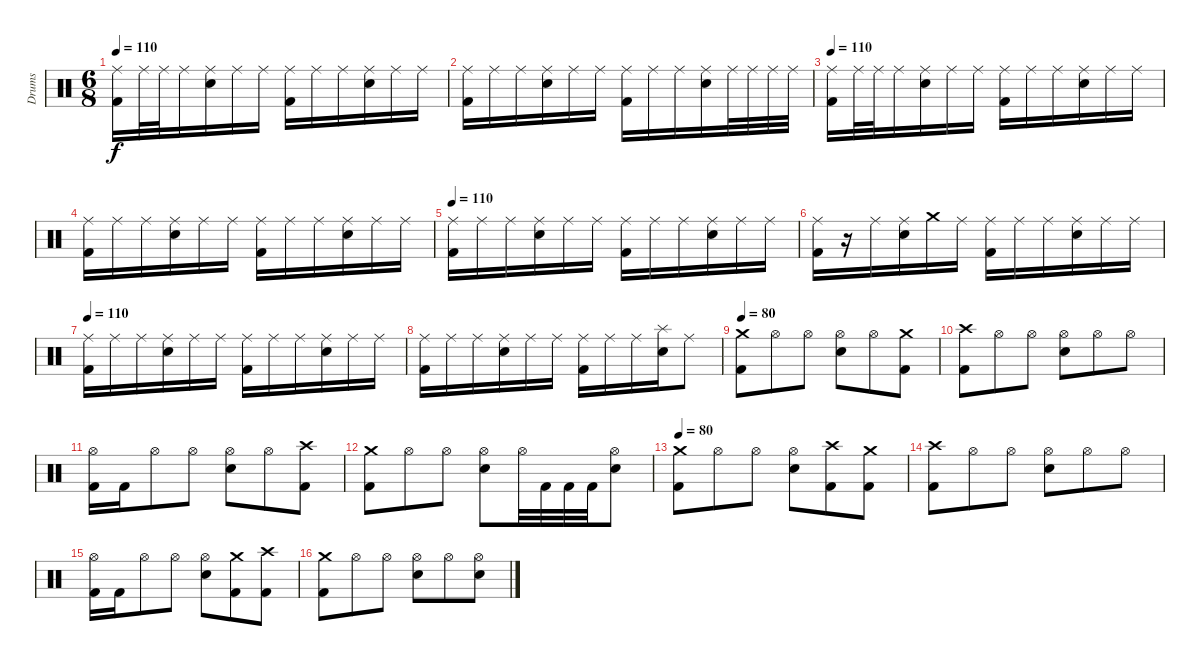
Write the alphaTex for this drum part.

\track ("Drums" "Drums") {instrument percussion}
\staff {score}
\articulation defaults
\ts (6 8)
\tempo 110
\clef neutral
\ks c
("Ride (middle)" "Kick (hit) 2").16{dy f} "Ride (middle)".32 "Ride (middle)".32 "Ride (middle)".16 ("Ride (middle)" "Electric Snare (hit)").16 "Ride (middle)".16 "Ride (middle)".16 ("Ride (middle)" "Kick (hit) 2").16 "Ride (middle)".16 "Ride (middle)".16 ("Ride (middle)" "Electric Snare (hit)").16 "Ride (middle)".16 "Ride (middle)".16 |
("Ride (middle)" "Kick (hit) 2").16 "Ride (middle)".16 "Ride (middle)".16 ("Ride (middle)" "Electric Snare (hit)").16 "Ride (middle)".16 "Ride (middle)".16 ("Ride (middle)" "Kick (hit) 2").16 "Ride (middle)".16 "Ride (middle)".16 ("Ride (middle)" "Electric Snare (hit)").16 "Ride (middle)".32 "Ride (middle)".32 "Ride (middle)".32 "Ride (middle)".32 |
\tempo 110
("Ride (middle)" "Kick (hit) 2").16 "Ride (middle)".32 "Ride (middle)".32 "Ride (middle)".16 ("Ride (middle)" "Electric Snare (hit)").16 "Ride (middle)".16 "Ride (middle)".16 ("Ride (middle)" "Kick (hit) 2").16 "Ride (middle)".16 "Ride (middle)".16 ("Ride (middle)" "Electric Snare (hit)").16 "Ride (middle)".16 "Ride (middle)".16 |
("Ride (middle)" "Kick (hit) 2").16 "Ride (middle)".16 "Ride (middle)".16 ("Ride (middle)" "Electric Snare (hit)").16 "Ride (middle)".16 "Ride (middle)".16 ("Ride (middle)" "Kick (hit) 2").16 "Ride (middle)".16 "Ride (middle)".16 ("Ride (middle)" "Electric Snare (hit)").16 "Ride (middle)".16 "Ride (middle)".16 |
\tempo 110
("Ride (middle)" "Kick (hit) 2").16 "Ride (middle)".16 "Ride (middle)".16 ("Ride (middle)" "Electric Snare (hit)").16 "Ride (middle)".16 "Ride (middle)".16 ("Ride (middle)" "Kick (hit) 2").16 "Ride (middle)".16 "Ride (middle)".16 ("Ride (middle)" "Electric Snare (hit)").16 "Ride (middle)".16 "Ride (middle)".16 |
("Ride (middle)" "Kick (hit) 2").16 r.16 "Ride (middle)".16 ("Ride (middle)" "Electric Snare (hit)").16 "Crash medium (hit)".16 "Ride (middle)".16 ("Ride (middle)" "Kick (hit) 2").16 "Ride (middle)".16 "Ride (middle)".16 ("Ride (middle)" "Electric Snare (hit)").16 "Ride (middle)".16 "Ride (middle)".16 |
\tempo 110
("Ride (middle)" "Kick (hit) 2").16 "Ride (middle)".16 "Ride (middle)".16 ("Ride (middle)" "Electric Snare (hit)").16 "Ride (middle)".16 "Ride (middle)".16 ("Ride (middle)" "Kick (hit) 2").16 "Ride (middle)".16 "Ride (middle)".16 ("Ride (middle)" "Electric Snare (hit)").16 "Ride (middle)".16 "Ride (middle)".16 |
("Ride (middle)" "Kick (hit) 2").16 "Ride (middle)".16 "Ride (middle)".16 ("Ride (middle)" "Electric Snare (hit)").16 "Ride (middle)".16 "Ride (middle)".16 ("Ride (middle)" "Kick (hit) 2").16 "Ride (middle)".16 "Ride (middle)".16 ("Splash (hit)" "Electric Snare (hit)").16 "Ride (middle)".8 |
\tempo 80
("Crash medium (hit)" "Kick (hit) 2").8 "Hi-Hat (open)".8 "Hi-Hat (open)".8 ("Hi-Hat (open)" "Electric Snare (hit)").8 "Hi-Hat (open)".8 ("Crash medium (hit)" "Kick (hit) 2").8 |
("Crash high (hit)" "Kick (hit) 2").8 "Hi-Hat (open)".8 "Hi-Hat (open)".8 ("Hi-Hat (open)" "Electric Snare (hit)").8 "Hi-Hat (open)".8 "Hi-Hat (open)".8 |
("Hi-Hat (open)" "Kick (hit) 2").16 "Kick (hit) 2".16 "Hi-Hat (open)".8 "Hi-Hat (open)".8 ("Hi-Hat (open)" "Electric Snare (hit)").8 "Hi-Hat (open)".8 ("Crash high (hit)" "Kick (hit) 2").8 |
("Crash medium (hit)" "Kick (hit) 2").8 "Hi-Hat (open)".8 "Hi-Hat (open)".8 ("Hi-Hat (open)" "Electric Snare (hit)").8 "Hi-Hat (open)".32 "Kick (hit) 2".32 "Kick (hit) 2".32 "Kick (hit) 2".32 ("Hi-Hat (open)" "Electric Snare (hit)").8 |
\tempo 80
("Crash medium (hit)" "Kick (hit) 2").8 "Hi-Hat (open)".8 "Hi-Hat (open)".8 ("Hi-Hat (open)" "Electric Snare (hit)").8 ("Crash high (hit)" "Kick (hit) 2").8 ("Crash medium (hit)" "Kick (hit) 2").8 |
("Crash high (hit)" "Kick (hit) 2").8 "Hi-Hat (open)".8 "Hi-Hat (open)".8 ("Hi-Hat (open)" "Electric Snare (hit)").8 "Hi-Hat (open)".8 "Hi-Hat (open)".8 |
("Hi-Hat (open)" "Kick (hit) 2").16 "Kick (hit) 2".16 "Hi-Hat (open)".8 "Hi-Hat (open)".8 ("Hi-Hat (open)" "Electric Snare (hit)").8 ("Crash medium (hit)" "Kick (hit) 2").8 ("Crash high (hit)" "Kick (hit) 2").8 |
("Crash medium (hit)" "Kick (hit) 2").8 "Hi-Hat (open)".8 "Hi-Hat (open)".8 ("Hi-Hat (open)" "Electric Snare (hit)").8 "Hi-Hat (open)".8 ("Hi-Hat (open)" "Electric Snare (hit)").8
